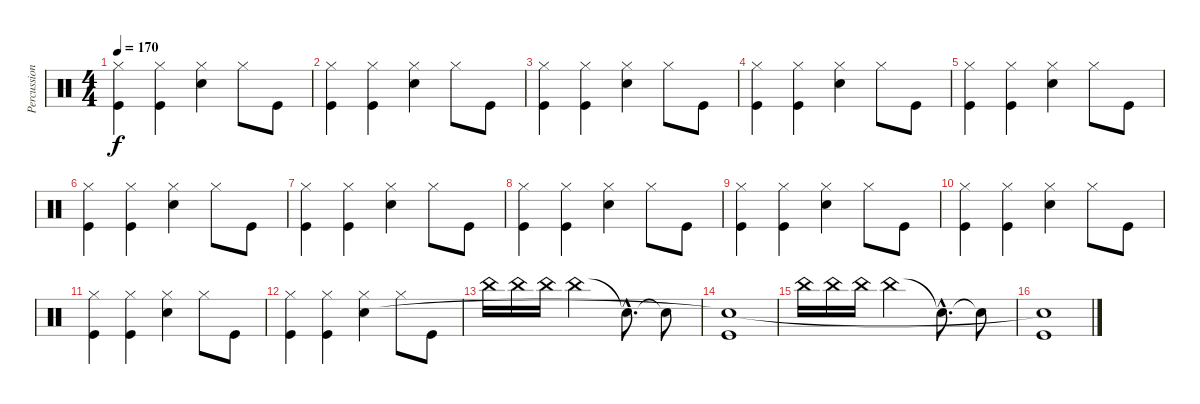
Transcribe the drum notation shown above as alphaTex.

\track ("Percussion" "Percussion") {instrument percussion}
\staff {score}
\articulation defaults
\ts (4 4)
\tempo 170
\clef neutral
\ks c
("Hi-Hat (closed)" "Kick (hit)").4{dy f} ("Hi-Hat (closed)" "Kick (hit)").4 ("Hi-Hat (closed)" "Snare (hit) 2").4 "Hi-Hat (closed)".8 "Kick (hit)".8 |
("Hi-Hat (closed)" "Kick (hit)").4 ("Hi-Hat (closed)" "Kick (hit)").4 ("Hi-Hat (closed)" "Snare (hit) 2").4 "Hi-Hat (closed)".8 "Kick (hit)".8 |
("Hi-Hat (closed)" "Kick (hit)").4 ("Hi-Hat (closed)" "Kick (hit)").4 ("Hi-Hat (closed)" "Snare (hit) 2").4 "Hi-Hat (closed)".8 "Kick (hit)".8 |
("Hi-Hat (closed)" "Kick (hit)").4 ("Hi-Hat (closed)" "Kick (hit)").4 ("Hi-Hat (closed)" "Snare (hit) 2").4 "Hi-Hat (closed)".8 "Kick (hit)".8 |
("Hi-Hat (closed)" "Kick (hit)").4 ("Hi-Hat (closed)" "Kick (hit)").4 ("Hi-Hat (closed)" "Snare (hit) 2").4 "Hi-Hat (closed)".8 "Kick (hit)".8 |
("Hi-Hat (closed)" "Kick (hit)").4 ("Hi-Hat (closed)" "Kick (hit)").4 ("Hi-Hat (closed)" "Snare (hit) 2").4 "Hi-Hat (closed)".8 "Kick (hit)".8 |
("Hi-Hat (closed)" "Kick (hit)").4 ("Hi-Hat (closed)" "Kick (hit)").4 ("Hi-Hat (closed)" "Snare (hit) 2").4 "Hi-Hat (closed)".8 "Kick (hit)".8 |
("Hi-Hat (closed)" "Kick (hit)").4 ("Hi-Hat (closed)" "Kick (hit)").4 ("Hi-Hat (closed)" "Snare (hit) 2").4 "Hi-Hat (closed)".8 "Kick (hit)".8 |
("Hi-Hat (closed)" "Kick (hit)").4 ("Hi-Hat (closed)" "Kick (hit)").4 ("Hi-Hat (closed)" "Snare (hit) 2").4 "Hi-Hat (closed)".8 "Kick (hit)".8 |
("Hi-Hat (closed)" "Kick (hit)").4 ("Hi-Hat (closed)" "Kick (hit)").4 ("Hi-Hat (closed)" "Snare (hit) 2").4 "Hi-Hat (closed)".8 "Kick (hit)".8 |
("Hi-Hat (closed)" "Kick (hit)").4 ("Hi-Hat (closed)" "Kick (hit)").4 ("Hi-Hat (closed)" "Snare (hit) 2").4 "Hi-Hat (closed)".8 "Kick (hit)".8 |
("Hi-Hat (closed)" "Kick (hit)").4 ("Hi-Hat (closed)" "Kick (hit)").4 ("Hi-Hat (closed)" "Snare (hit) 2").4 "Hi-Hat (closed)".8 "Kick (hit)".8 |
"China (hit)".16 "China (hit)".16 "China (hit)".16 "China (hit)".2 "Snare (hit)"{hac t}.8{d} "Snare (hit)"{t}.8 |
("Kick (hit)" "Snare (hit)"{t}).1 |
"China (hit)".16 "China (hit)".16 "China (hit)".16 "China (hit)".2 "Snare (hit)"{hac t}.8{d} "Snare (hit)"{t}.8 |
("Kick (hit)" "Snare (hit)"{t}).1
